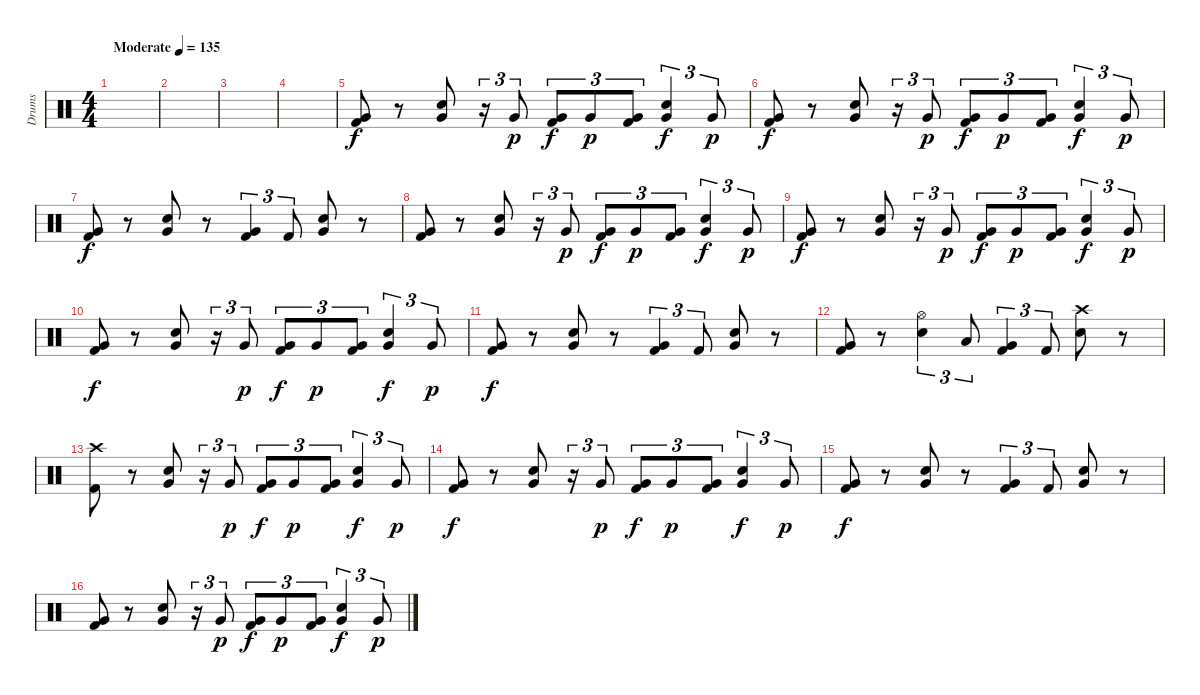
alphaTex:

\track ("Drums" "Drums") {instrument percussion}
\staff {score}
\articulation defaults
\ts (4 4)
\tempo (135 "Moderate")
\clef neutral
\ks c
|
|
|
|
("Very Low Tom (hit)" "Kick (hit) 2").8 r.8 ("Very Low Tom (hit)" "Electric Snare (hit)").8 r.16{tu (3 2)} "Very Low Tom (hit)".8{tu (3 2) dy p} ("Very Low Tom (hit)" "Kick (hit) 2").8{tu (3 2) dy f} "Very Low Tom (hit)".8{tu (3 2) dy p} ("Very Low Tom (hit)" "Kick (hit) 2").8{tu (3 2)} ("Very Low Tom (hit)" "Electric Snare (hit)").4{tu (3 2) dy f} "Very Low Tom (hit)".8{tu (3 2) dy p} |
("Very Low Tom (hit)" "Kick (hit) 2").8{dy f} r.8 ("Very Low Tom (hit)" "Electric Snare (hit)").8 r.16{tu (3 2)} "Very Low Tom (hit)".8{tu (3 2) dy p} ("Very Low Tom (hit)" "Kick (hit) 2").8{tu (3 2) dy f} "Very Low Tom (hit)".8{tu (3 2) dy p} ("Very Low Tom (hit)" "Kick (hit) 2").8{tu (3 2)} ("Very Low Tom (hit)" "Electric Snare (hit)").4{tu (3 2) dy f} "Very Low Tom (hit)".8{tu (3 2) dy p} |
("Very Low Tom (hit)" "Kick (hit) 2").8{dy f} r.8 ("Very Low Tom (hit)" "Electric Snare (hit)").8 r.8 ("Very Low Tom (hit)" "Kick (hit) 2").4{tu (3 2)} "Kick (hit) 2".8{tu (3 2)} ("Very Low Tom (hit)" "Electric Snare (hit)").8 r.8 |
("Very Low Tom (hit)" "Kick (hit) 2").8 r.8 ("Very Low Tom (hit)" "Electric Snare (hit)").8 r.16{tu (3 2)} "Very Low Tom (hit)".8{tu (3 2) dy p} ("Very Low Tom (hit)" "Kick (hit) 2").8{tu (3 2) dy f} "Very Low Tom (hit)".8{tu (3 2) dy p} ("Very Low Tom (hit)" "Kick (hit) 2").8{tu (3 2)} ("Very Low Tom (hit)" "Electric Snare (hit)").4{tu (3 2) dy f} "Very Low Tom (hit)".8{tu (3 2) dy p} |
("Very Low Tom (hit)" "Kick (hit) 2").8{dy f} r.8 ("Very Low Tom (hit)" "Electric Snare (hit)").8 r.16{tu (3 2)} "Very Low Tom (hit)".8{tu (3 2) dy p} ("Very Low Tom (hit)" "Kick (hit) 2").8{tu (3 2) dy f} "Very Low Tom (hit)".8{tu (3 2) dy p} ("Very Low Tom (hit)" "Kick (hit) 2").8{tu (3 2)} ("Very Low Tom (hit)" "Electric Snare (hit)").4{tu (3 2) dy f} "Very Low Tom (hit)".8{tu (3 2) dy p} |
("Very Low Tom (hit)" "Kick (hit) 2").8{dy f} r.8 ("Very Low Tom (hit)" "Electric Snare (hit)").8 r.16{tu (3 2)} "Very Low Tom (hit)".8{tu (3 2) dy p} ("Very Low Tom (hit)" "Kick (hit) 2").8{tu (3 2) dy f} "Very Low Tom (hit)".8{tu (3 2) dy p} ("Very Low Tom (hit)" "Kick (hit) 2").8{tu (3 2)} ("Very Low Tom (hit)" "Electric Snare (hit)").4{tu (3 2) dy f} "Very Low Tom (hit)".8{tu (3 2) dy p} |
("Very Low Tom (hit)" "Kick (hit) 2").8{dy f} r.8 ("Very Low Tom (hit)" "Electric Snare (hit)").8 r.8 ("Very Low Tom (hit)" "Kick (hit) 2").4{tu (3 2)} "Kick (hit) 2".8{tu (3 2)} ("Very Low Tom (hit)" "Electric Snare (hit)").8 r.8 |
("Very Low Tom (hit)" "Kick (hit) 2").8 r.8 ("Hi-Hat (open)" "Electric Snare (hit)").4{tu (3 2)} "Low Tom (hit)".8{tu (3 2)} ("Very Low Tom (hit)" "Kick (hit) 2").4{tu (3 2)} "Kick (hit) 2".8{tu (3 2)} ("Crash high (hit)" "Electric Snare (hit)").8 r.8 |
("Crash high (hit)" "Kick (hit) 2").8 r.8 ("Very Low Tom (hit)" "Electric Snare (hit)").8 r.16{tu (3 2)} "Very Low Tom (hit)".8{tu (3 2) dy p} ("Very Low Tom (hit)" "Kick (hit) 2").8{tu (3 2) dy f} "Very Low Tom (hit)".8{tu (3 2) dy p} ("Very Low Tom (hit)" "Kick (hit) 2").8{tu (3 2)} ("Very Low Tom (hit)" "Electric Snare (hit)").4{tu (3 2) dy f} "Very Low Tom (hit)".8{tu (3 2) dy p} |
("Very Low Tom (hit)" "Kick (hit) 2").8{dy f} r.8 ("Very Low Tom (hit)" "Electric Snare (hit)").8 r.16{tu (3 2)} "Very Low Tom (hit)".8{tu (3 2) dy p} ("Very Low Tom (hit)" "Kick (hit) 2").8{tu (3 2) dy f} "Very Low Tom (hit)".8{tu (3 2) dy p} ("Very Low Tom (hit)" "Kick (hit) 2").8{tu (3 2)} ("Very Low Tom (hit)" "Electric Snare (hit)").4{tu (3 2) dy f} "Very Low Tom (hit)".8{tu (3 2) dy p} |
("Very Low Tom (hit)" "Kick (hit) 2").8{dy f} r.8 ("Very Low Tom (hit)" "Electric Snare (hit)").8 r.8 ("Very Low Tom (hit)" "Kick (hit) 2").4{tu (3 2)} "Kick (hit) 2".8{tu (3 2)} ("Very Low Tom (hit)" "Electric Snare (hit)").8 r.8 |
("Very Low Tom (hit)" "Kick (hit) 2").8 r.8 ("Very Low Tom (hit)" "Electric Snare (hit)").8 r.16{tu (3 2)} "Very Low Tom (hit)".8{tu (3 2) dy p} ("Very Low Tom (hit)" "Kick (hit) 2").8{tu (3 2) dy f} "Very Low Tom (hit)".8{tu (3 2) dy p} ("Very Low Tom (hit)" "Kick (hit) 2").8{tu (3 2)} ("Very Low Tom (hit)" "Electric Snare (hit)").4{tu (3 2) dy f} "Very Low Tom (hit)".8{tu (3 2) dy p}
